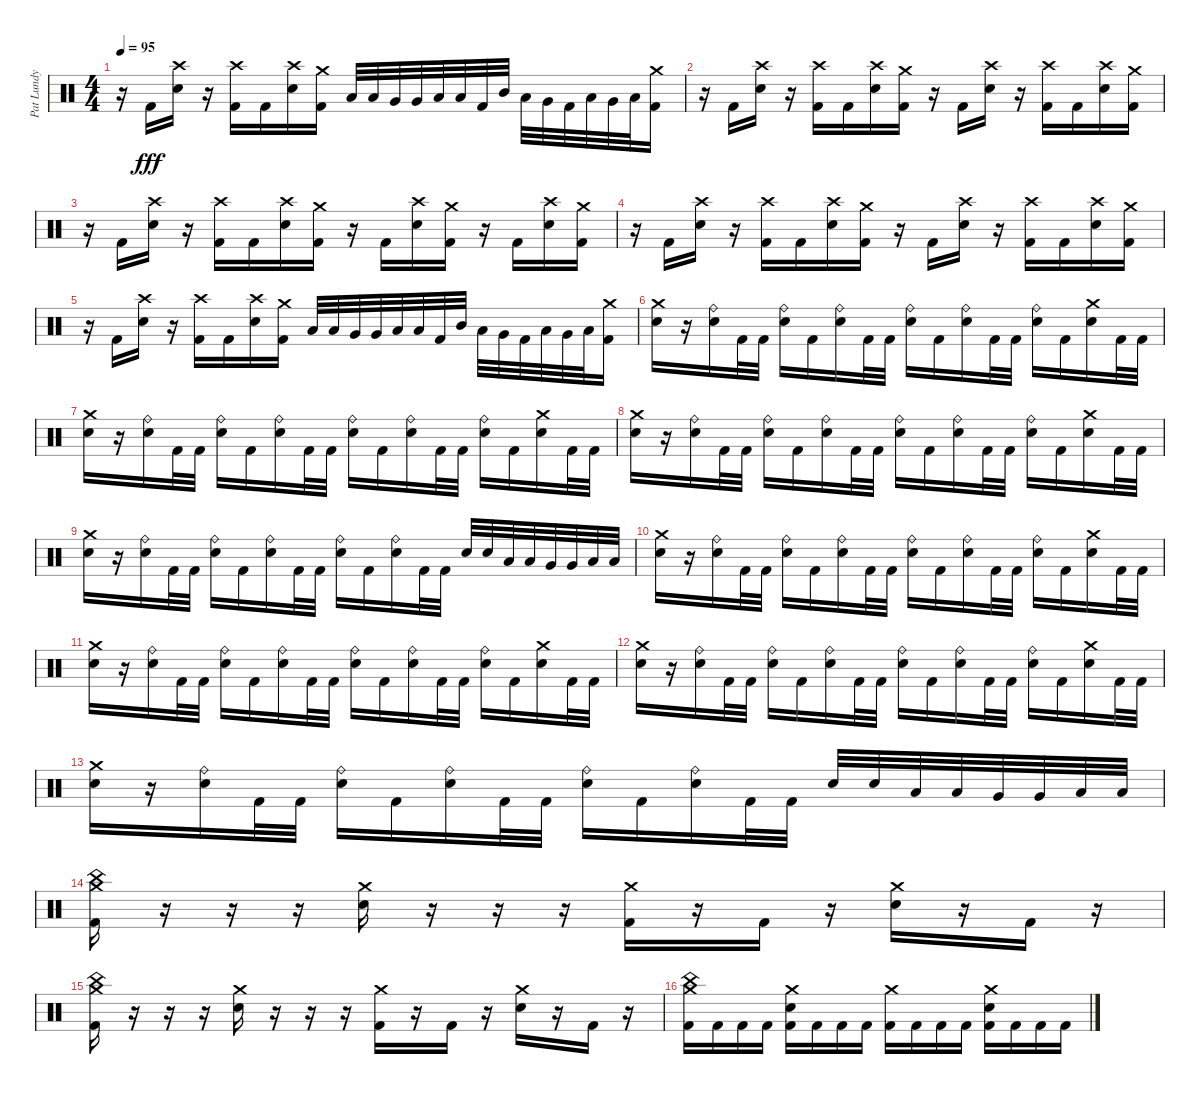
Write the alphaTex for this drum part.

\track ("Pat Lundy" "Pat Lundy") {instrument percussion}
\staff {score}
\articulation defaults
\ts (4 4)
\tempo 95
\clef neutral
\ks c
r.16{dy fff} "Kick (hit) 2".16 ("Crash high (hit)" "Electric Snare (hit)").16 r.16 ("Crash high (hit)" "Kick (hit) 2").16 "Kick (hit) 2".16 ("Crash high (hit)" "Electric Snare (hit)").16 ("Crash medium (hit)" "Kick (hit) 2").16 "Low Tom (hit)".32 "Low Tom (hit)".32 "Very Low Tom (hit)".32 "Very Low Tom (hit)".32 "Low Floor Tom (hit)".32 "Low Floor Tom (hit)".32 "Kick (hit) 2".32 "Mid Tom (hit)".32 "Low Tom (hit)".32 "Very Low Tom (hit)".32 "Kick (hit) 2".32 "Low Tom (hit)".32 "Very Low Tom (hit)".32 "Low Floor Tom (hit)".32 ("Crash medium (hit)" "Kick (hit) 2").16 |
r.16 "Kick (hit) 2".16 ("Crash high (hit)" "Electric Snare (hit)").16 r.16 ("Crash high (hit)" "Kick (hit) 2").16 "Kick (hit) 2".16 ("Crash high (hit)" "Electric Snare (hit)").16 ("Crash medium (hit)" "Kick (hit) 2").16 r.16 "Kick (hit) 2".16 ("Crash high (hit)" "Electric Snare (hit)").16 r.16 ("Crash high (hit)" "Kick (hit) 2").16 "Kick (hit) 2".16 ("Crash high (hit)" "Electric Snare (hit)").16 ("Crash medium (hit)" "Kick (hit) 2").16 |
r.16 "Kick (hit) 2".16 ("Crash high (hit)" "Electric Snare (hit)").16 r.16 ("Crash high (hit)" "Kick (hit) 2").16 "Kick (hit) 2".16 ("Crash high (hit)" "Electric Snare (hit)").16 ("Crash medium (hit)" "Kick (hit) 2").16 r.16 "Kick (hit) 2".16 ("Crash high (hit)" "Electric Snare (hit)").16 ("Crash medium (hit)" "Kick (hit) 2").16 r.16 "Kick (hit) 2".16 ("Crash high (hit)" "Electric Snare (hit)").16 ("Crash medium (hit)" "Kick (hit) 2").16 |
r.16 "Kick (hit) 2".16 ("Crash high (hit)" "Electric Snare (hit)").16 r.16 ("Crash high (hit)" "Kick (hit) 2").16 "Kick (hit) 2".16 ("Crash high (hit)" "Electric Snare (hit)").16 ("Crash medium (hit)" "Kick (hit) 2").16 r.16 "Kick (hit) 2".16 ("Crash high (hit)" "Electric Snare (hit)").16 r.16 ("Crash high (hit)" "Kick (hit) 2").16 "Kick (hit) 2".16 ("Crash high (hit)" "Electric Snare (hit)").16 ("Crash medium (hit)" "Kick (hit) 2").16 |
r.16 "Kick (hit) 2".16 ("Crash high (hit)" "Electric Snare (hit)").16 r.16 ("Crash high (hit)" "Kick (hit) 2").16 "Kick (hit) 2".16 ("Crash high (hit)" "Electric Snare (hit)").16 ("Crash medium (hit)" "Kick (hit) 2").16 "Low Tom (hit)".32 "Low Tom (hit)".32 "Very Low Tom (hit)".32 "Very Low Tom (hit)".32 "Low Floor Tom (hit)".32 "Low Floor Tom (hit)".32 "Kick (hit) 2".32 "Mid Tom (hit)".32 "Low Tom (hit)".32 "Very Low Tom (hit)".32 "Kick (hit) 2".32 "Low Tom (hit)".32 "Very Low Tom (hit)".32 "Low Floor Tom (hit)".32 ("Crash medium (hit)" "Kick (hit) 2").16 |
("Crash medium (hit)" "Electric Snare (hit)").16 r.16 ("Ride (bell)" "Electric Snare (hit)").16 "Kick (hit) 2".32 "Kick (hit) 2".32 ("Ride (bell)" "Electric Snare (hit)").16 "Kick (hit) 2".16 ("Ride (bell)" "Electric Snare (hit)").16 "Kick (hit) 2".32 "Kick (hit) 2".32 ("Ride (bell)" "Electric Snare (hit)").16 "Kick (hit) 2".16 ("Ride (bell)" "Electric Snare (hit)").16 "Kick (hit) 2".32 "Kick (hit) 2".32 ("Ride (bell)" "Electric Snare (hit)").16 "Kick (hit) 2".16 ("Crash medium (hit)" "Electric Snare (hit)").16 "Kick (hit) 2".32 "Kick (hit) 2".32 |
("Crash medium (hit)" "Electric Snare (hit)").16 r.16 ("Ride (bell)" "Electric Snare (hit)").16 "Kick (hit) 2".32 "Kick (hit) 2".32 ("Ride (bell)" "Electric Snare (hit)").16 "Kick (hit) 2".16 ("Ride (bell)" "Electric Snare (hit)").16 "Kick (hit) 2".32 "Kick (hit) 2".32 ("Ride (bell)" "Electric Snare (hit)").16 "Kick (hit) 2".16 ("Ride (bell)" "Electric Snare (hit)").16 "Kick (hit) 2".32 "Kick (hit) 2".32 ("Ride (bell)" "Electric Snare (hit)").16 "Kick (hit) 2".16 ("Crash medium (hit)" "Electric Snare (hit)").16 "Kick (hit) 2".32 "Kick (hit) 2".32 |
("Crash medium (hit)" "Electric Snare (hit)").16 r.16 ("Ride (bell)" "Electric Snare (hit)").16 "Kick (hit) 2".32 "Kick (hit) 2".32 ("Ride (bell)" "Electric Snare (hit)").16 "Kick (hit) 2".16 ("Ride (bell)" "Electric Snare (hit)").16 "Kick (hit) 2".32 "Kick (hit) 2".32 ("Ride (bell)" "Electric Snare (hit)").16 "Kick (hit) 2".16 ("Ride (bell)" "Electric Snare (hit)").16 "Kick (hit) 2".32 "Kick (hit) 2".32 ("Ride (bell)" "Electric Snare (hit)").16 "Kick (hit) 2".16 ("Crash medium (hit)" "Electric Snare (hit)").16 "Kick (hit) 2".32 "Kick (hit) 2".32 |
("Crash medium (hit)" "Electric Snare (hit)").16 r.16 ("Ride (bell)" "Electric Snare (hit)").16 "Kick (hit) 2".32 "Kick (hit) 2".32 ("Ride (bell)" "Electric Snare (hit)").16 "Kick (hit) 2".16 ("Ride (bell)" "Electric Snare (hit)").16 "Kick (hit) 2".32 "Kick (hit) 2".32 ("Ride (bell)" "Electric Snare (hit)").16 "Kick (hit) 2".16 ("Ride (bell)" "Electric Snare (hit)").16 "Kick (hit) 2".32 "Kick (hit) 2".32 "Electric Snare (hit)".32 "Electric Snare (hit)".32 "Low Tom (hit)".32 "Low Tom (hit)".32 "Very Low Tom (hit)".32 "Very Low Tom (hit)".32 "Low Floor Tom (hit)".32 "Low Floor Tom (hit)".32 |
("Crash medium (hit)" "Electric Snare (hit)").16 r.16 ("Ride (bell)" "Electric Snare (hit)").16 "Kick (hit) 2".32 "Kick (hit) 2".32 ("Ride (bell)" "Electric Snare (hit)").16 "Kick (hit) 2".16 ("Ride (bell)" "Electric Snare (hit)").16 "Kick (hit) 2".32 "Kick (hit) 2".32 ("Ride (bell)" "Electric Snare (hit)").16 "Kick (hit) 2".16 ("Ride (bell)" "Electric Snare (hit)").16 "Kick (hit) 2".32 "Kick (hit) 2".32 ("Ride (bell)" "Electric Snare (hit)").16 "Kick (hit) 2".16 ("Crash medium (hit)" "Electric Snare (hit)").16 "Kick (hit) 2".32 "Kick (hit) 2".32 |
("Crash medium (hit)" "Electric Snare (hit)").16 r.16 ("Ride (bell)" "Electric Snare (hit)").16 "Kick (hit) 2".32 "Kick (hit) 2".32 ("Ride (bell)" "Electric Snare (hit)").16 "Kick (hit) 2".16 ("Ride (bell)" "Electric Snare (hit)").16 "Kick (hit) 2".32 "Kick (hit) 2".32 ("Ride (bell)" "Electric Snare (hit)").16 "Kick (hit) 2".16 ("Ride (bell)" "Electric Snare (hit)").16 "Kick (hit) 2".32 "Kick (hit) 2".32 ("Ride (bell)" "Electric Snare (hit)").16 "Kick (hit) 2".16 ("Crash medium (hit)" "Electric Snare (hit)").16 "Kick (hit) 2".32 "Kick (hit) 2".32 |
("Crash medium (hit)" "Electric Snare (hit)").16 r.16 ("Ride (bell)" "Electric Snare (hit)").16 "Kick (hit) 2".32 "Kick (hit) 2".32 ("Ride (bell)" "Electric Snare (hit)").16 "Kick (hit) 2".16 ("Ride (bell)" "Electric Snare (hit)").16 "Kick (hit) 2".32 "Kick (hit) 2".32 ("Ride (bell)" "Electric Snare (hit)").16 "Kick (hit) 2".16 ("Ride (bell)" "Electric Snare (hit)").16 "Kick (hit) 2".32 "Kick (hit) 2".32 ("Ride (bell)" "Electric Snare (hit)").16 "Kick (hit) 2".16 ("Crash medium (hit)" "Electric Snare (hit)").16 "Kick (hit) 2".32 "Kick (hit) 2".32 |
("Crash medium (hit)" "Electric Snare (hit)").16 r.16 ("Ride (bell)" "Electric Snare (hit)").16 "Kick (hit) 2".32 "Kick (hit) 2".32 ("Ride (bell)" "Electric Snare (hit)").16 "Kick (hit) 2".16 ("Ride (bell)" "Electric Snare (hit)").16 "Kick (hit) 2".32 "Kick (hit) 2".32 ("Ride (bell)" "Electric Snare (hit)").16 "Kick (hit) 2".16 ("Ride (bell)" "Electric Snare (hit)").16 "Kick (hit) 2".32 "Kick (hit) 2".32 "Electric Snare (hit)".32 "Electric Snare (hit)".32 "Low Tom (hit)".32 "Low Tom (hit)".32 "Very Low Tom (hit)".32 "Very Low Tom (hit)".32 "Low Floor Tom (hit)".32 "Low Floor Tom (hit)".32 |
("Crash medium (hit)" "China (hit)" "Kick (hit) 2").16 r.16 r.16 r.16 ("Crash medium (hit)" "Electric Snare (hit)").16 r.16 r.16 r.16 ("Crash medium (hit)" "Kick (hit) 2").16 r.16 "Kick (hit) 2".16 r.16 ("Crash medium (hit)" "Electric Snare (hit)").16 r.16 "Kick (hit) 2".16 r.16 |
("Crash medium (hit)" "China (hit)" "Kick (hit) 2").16 r.16 r.16 r.16 ("Crash medium (hit)" "Electric Snare (hit)").16 r.16 r.16 r.16 ("Crash medium (hit)" "Kick (hit) 2").16 r.16 "Kick (hit) 2".16 r.16 ("Crash medium (hit)" "Electric Snare (hit)").16 r.16 "Kick (hit) 2".16 r.16 |
("Crash medium (hit)" "China (hit)" "Kick (hit) 2").16 "Kick (hit) 2".16 "Kick (hit) 2".16 "Kick (hit) 2".16 ("Crash medium (hit)" "Electric Snare (hit)" "Kick (hit) 2").16 "Kick (hit) 2".16 "Kick (hit) 2".16 "Kick (hit) 2".16 ("Crash medium (hit)" "Kick (hit) 2").16 "Kick (hit) 2".16 "Kick (hit) 2".16 "Kick (hit) 2".16 ("Crash medium (hit)" "Electric Snare (hit)" "Kick (hit) 2").16 "Kick (hit) 2".16 "Kick (hit) 2".16 "Kick (hit) 2".16
